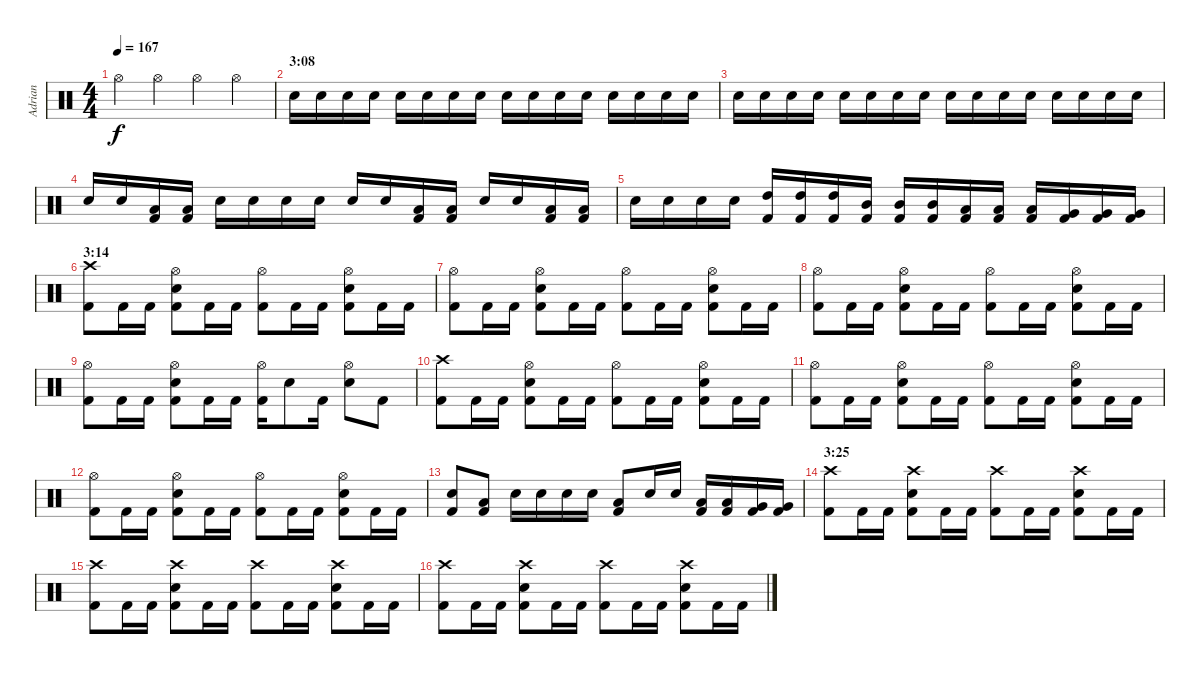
\track ("Adrian" "Adrian") {instrument percussion}
\staff {score}
\articulation defaults
\ts (4 4)
\tempo 167
\clef neutral
\ks c "Hi-Hat (open)".4{dy f} "Hi-Hat (open)".4 "Hi-Hat (open)".4 "Hi-Hat (open)".4
|
\section ("" "3:08")
"Snare (hit) 2".16 "Snare (hit) 2".16 "Snare (hit) 2".16 "Snare (hit) 2".16 "Snare (hit) 2".16 "Snare (hit) 2".16 "Snare (hit) 2".16 "Snare (hit) 2".16 "Snare (hit) 2".16 "Snare (hit) 2".16 "Snare (hit) 2".16 "Snare (hit) 2".16 "Snare (hit) 2".16 "Snare (hit) 2".16 "Snare (hit) 2".16 "Snare (hit) 2".16 |
"Snare (hit) 2".16 "Snare (hit) 2".16 "Snare (hit) 2".16 "Snare (hit) 2".16 "Snare (hit) 2".16 "Snare (hit) 2".16 "Snare (hit) 2".16 "Snare (hit) 2".16 "Snare (hit) 2".16 "Snare (hit) 2".16 "Snare (hit) 2".16 "Snare (hit) 2".16 "Snare (hit) 2".16 "Snare (hit) 2".16 "Snare (hit) 2".16 "Snare (hit) 2".16 |
"Snare (hit) 2".16 "Snare (hit) 2".16 ("Kick (hit) 2" "Low Tom (hit)").16 ("Kick (hit) 2" "Low Tom (hit)").16 "Snare (hit) 2".16 "Snare (hit) 2".16 "Snare (hit) 2".16 "Snare (hit) 2".16 "Snare (hit) 2".16 "Snare (hit) 2".16 ("Kick (hit) 2" "Low Tom (hit)").16 ("Kick (hit) 2" "Low Tom (hit)").16 "Snare (hit) 2".16 "Snare (hit) 2".16 ("Kick (hit) 2" "Low Tom (hit)").16 ("Kick (hit) 2" "Low Tom (hit)").16 |
"Snare (hit) 2".16 "Snare (hit) 2".16 "Snare (hit) 2".16 "Snare (hit) 2".16 ("Kick (hit) 2" "High Tom (hit)").16 ("Kick (hit) 2" "High Tom (hit)").16 ("Kick (hit) 2" "High Tom (hit)").16 ("Kick (hit) 2" "Mid Tom (hit)").16 ("Kick (hit) 2" "Mid Tom (hit)").16 ("Kick (hit) 2" "Mid Tom (hit)").16 ("Kick (hit) 2" "Low Tom (hit)").16 ("Kick (hit) 2" "Low Tom (hit)").16 ("Kick (hit) 2" "Low Tom (hit)").16 ("Kick (hit) 2" "Very Low Tom (hit)").16 ("Kick (hit) 2" "Very Low Tom (hit)").16 ("Kick (hit) 2" "Very Low Tom (hit)").16 |
\section ("" "3:14")
("Kick (hit) 2" "Crash high (hit)").8 "Kick (hit) 2".16 "Kick (hit) 2".16 ("Kick (hit) 2" "Snare (hit) 2" "Hi-Hat (open)").8 "Kick (hit) 2".16 "Kick (hit) 2".16 ("Kick (hit) 2" "Hi-Hat (open)").8 "Kick (hit) 2".16 "Kick (hit) 2".16 ("Kick (hit) 2" "Snare (hit) 2" "Hi-Hat (open)").8 "Kick (hit) 2".16 "Kick (hit) 2".16 |
("Kick (hit) 2" "Hi-Hat (open)").8 "Kick (hit) 2".16 "Kick (hit) 2".16 ("Kick (hit) 2" "Snare (hit) 2" "Hi-Hat (open)").8 "Kick (hit) 2".16 "Kick (hit) 2".16 ("Kick (hit) 2" "Hi-Hat (open)").8 "Kick (hit) 2".16 "Kick (hit) 2".16 ("Kick (hit) 2" "Snare (hit) 2" "Hi-Hat (open)").8 "Kick (hit) 2".16 "Kick (hit) 2".16 |
("Kick (hit) 2" "Hi-Hat (open)").8 "Kick (hit) 2".16 "Kick (hit) 2".16 ("Kick (hit) 2" "Snare (hit) 2" "Hi-Hat (open)").8 "Kick (hit) 2".16 "Kick (hit) 2".16 ("Kick (hit) 2" "Hi-Hat (open)").8 "Kick (hit) 2".16 "Kick (hit) 2".16 ("Kick (hit) 2" "Snare (hit) 2" "Hi-Hat (open)").8 "Kick (hit) 2".16 "Kick (hit) 2".16 |
("Kick (hit) 2" "Hi-Hat (open)").8 "Kick (hit) 2".16 "Kick (hit) 2".16 ("Kick (hit) 2" "Snare (hit) 2" "Hi-Hat (open)").8 "Kick (hit) 2".16 "Kick (hit) 2".16 ("Kick (hit) 2" "Hi-Hat (open)").16 "Snare (hit) 2".8 "Kick (hit) 2".16 ("Snare (hit) 2" "Hi-Hat (open)").8 "Kick (hit) 2".8 |
("Kick (hit) 2" "Crash high (hit)").8 "Kick (hit) 2".16 "Kick (hit) 2".16 ("Kick (hit) 2" "Snare (hit) 2" "Hi-Hat (open)").8 "Kick (hit) 2".16 "Kick (hit) 2".16 ("Kick (hit) 2" "Hi-Hat (open)").8 "Kick (hit) 2".16 "Kick (hit) 2".16 ("Kick (hit) 2" "Snare (hit) 2" "Hi-Hat (open)").8 "Kick (hit) 2".16 "Kick (hit) 2".16 |
("Kick (hit) 2" "Hi-Hat (open)").8 "Kick (hit) 2".16 "Kick (hit) 2".16 ("Kick (hit) 2" "Snare (hit) 2" "Hi-Hat (open)").8 "Kick (hit) 2".16 "Kick (hit) 2".16 ("Kick (hit) 2" "Hi-Hat (open)").8 "Kick (hit) 2".16 "Kick (hit) 2".16 ("Kick (hit) 2" "Snare (hit) 2" "Hi-Hat (open)").8 "Kick (hit) 2".16 "Kick (hit) 2".16 |
("Kick (hit) 2" "Hi-Hat (open)").8 "Kick (hit) 2".16 "Kick (hit) 2".16 ("Kick (hit) 2" "Snare (hit) 2" "Hi-Hat (open)").8 "Kick (hit) 2".16 "Kick (hit) 2".16 ("Kick (hit) 2" "Hi-Hat (open)").8 "Kick (hit) 2".16 "Kick (hit) 2".16 ("Kick (hit) 2" "Snare (hit) 2" "Hi-Hat (open)").8 "Kick (hit) 2".16 "Kick (hit) 2".16 |
("Kick (hit) 2" "Snare (hit) 2").8 ("Kick (hit) 2" "Low Tom (hit)").8 "Snare (hit) 2".16 "Snare (hit) 2".16 "Snare (hit) 2".16 "Snare (hit) 2".16 ("Kick (hit) 2" "Low Tom (hit)").8 "Snare (hit) 2".16 "Snare (hit) 2".16 ("Kick (hit) 2" "Low Tom (hit)").16 ("Kick (hit) 2" "Low Tom (hit)").16 ("Kick (hit) 2" "Very Low Tom (hit)").16 ("Kick (hit) 2" "Very Low Tom (hit)").16 |
\section ("" "3:25")
("Kick (hit) 2" "Crash high (hit)").8 "Kick (hit) 2".16 "Kick (hit) 2".16 ("Kick (hit) 2" "Snare (hit) 2" "Crash high (hit)").8 "Kick (hit) 2".16 "Kick (hit) 2".16 ("Kick (hit) 2" "Crash high (hit)").8 "Kick (hit) 2".16 "Kick (hit) 2".16 ("Kick (hit) 2" "Snare (hit) 2" "Crash high (hit)").8 "Kick (hit) 2".16 "Kick (hit) 2".16 |
("Kick (hit) 2" "Crash high (hit)").8 "Kick (hit) 2".16 "Kick (hit) 2".16 ("Kick (hit) 2" "Snare (hit) 2" "Crash high (hit)").8 "Kick (hit) 2".16 "Kick (hit) 2".16 ("Kick (hit) 2" "Crash high (hit)").8 "Kick (hit) 2".16 "Kick (hit) 2".16 ("Kick (hit) 2" "Snare (hit) 2" "Crash high (hit)").8 "Kick (hit) 2".16 "Kick (hit) 2".16 |
("Kick (hit) 2" "Crash high (hit)").8 "Kick (hit) 2".16 "Kick (hit) 2".16 ("Kick (hit) 2" "Snare (hit) 2" "Crash high (hit)").8 "Kick (hit) 2".16 "Kick (hit) 2".16 ("Kick (hit) 2" "Crash high (hit)").8 "Kick (hit) 2".16 "Kick (hit) 2".16 ("Kick (hit) 2" "Snare (hit) 2" "Crash high (hit)").8 "Kick (hit) 2".16 "Kick (hit) 2".16
